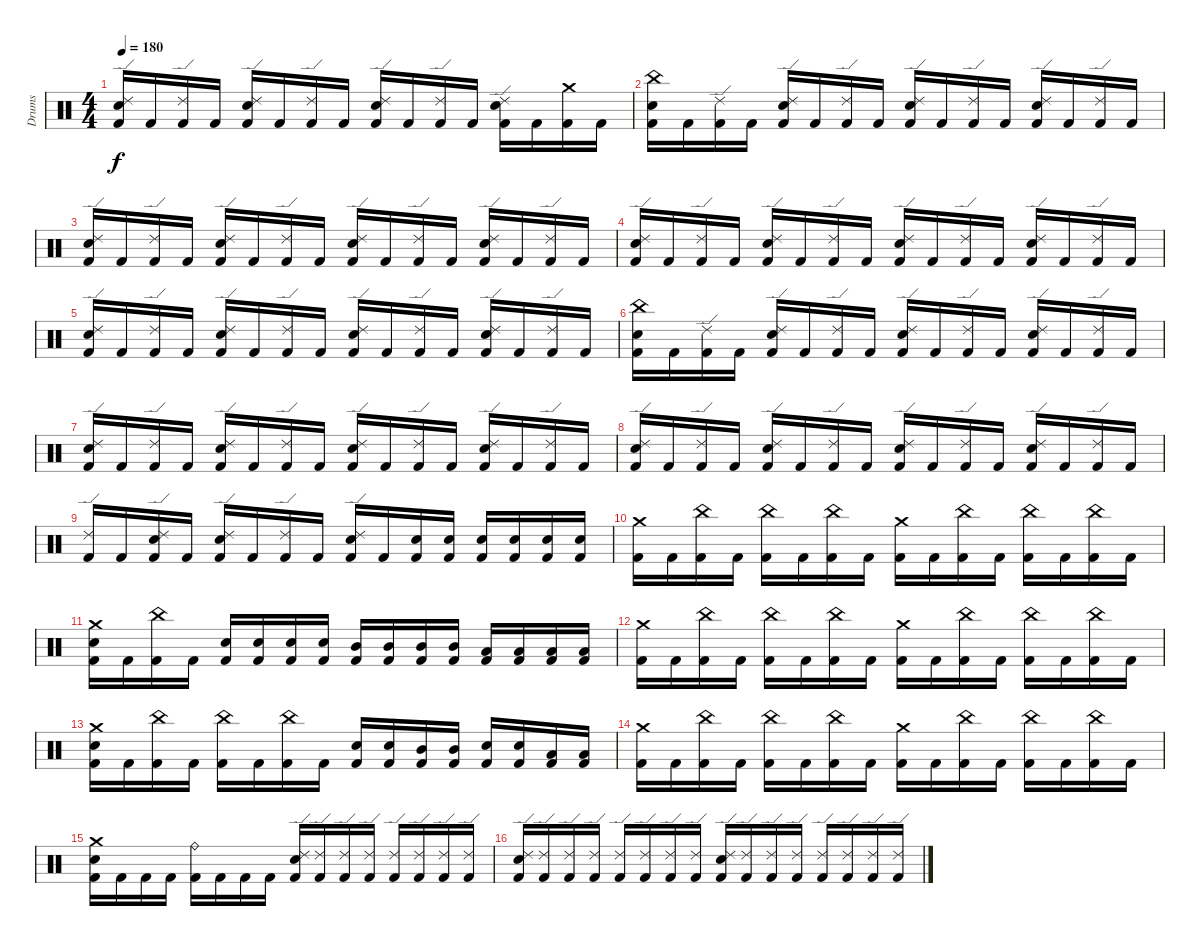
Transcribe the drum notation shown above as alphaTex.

\track ("Drums" "Drums") {instrument percussion}
\staff {score}
\articulation defaults
\ts (4 4)
\tempo 180
\clef neutral
\ks c
("Ride (edge) 2" "Snare (hit) 2" "Kick (hit) 2").16{dy f} "Kick (hit) 2".16 ("Ride (edge) 2" "Kick (hit) 2").16 "Kick (hit) 2".16 ("Ride (edge) 2" "Snare (hit) 2" "Kick (hit) 2").16 "Kick (hit) 2".16 ("Ride (edge) 2" "Kick (hit) 2").16 "Kick (hit) 2".16 ("Ride (edge) 2" "Snare (hit) 2" "Kick (hit) 2").16 "Kick (hit) 2".16 ("Ride (edge) 2" "Kick (hit) 2").16 "Kick (hit) 2".16 ("Ride (edge) 2" "Snare (hit) 2" "Kick (hit) 2").16 "Kick (hit) 2".16 ("Crash medium (hit)" "Kick (hit) 2").16 "Kick (hit) 2".16 |
("China (hit)" "Snare (hit) 2" "Kick (hit) 2").16 "Kick (hit) 2".16 ("Ride (edge) 2" "Kick (hit) 2").16 "Kick (hit) 2".16 ("Ride (edge) 2" "Snare (hit) 2" "Kick (hit) 2").16 "Kick (hit) 2".16 ("Ride (edge) 2" "Kick (hit) 2").16 "Kick (hit) 2".16 ("Ride (edge) 2" "Snare (hit) 2" "Kick (hit) 2").16 "Kick (hit) 2".16 ("Ride (edge) 2" "Kick (hit) 2").16 "Kick (hit) 2".16 ("Ride (edge) 2" "Snare (hit) 2" "Kick (hit) 2").16 "Kick (hit) 2".16 ("Ride (edge) 2" "Kick (hit) 2").16 "Kick (hit) 2".16 |
("Ride (edge) 2" "Snare (hit) 2" "Kick (hit) 2").16 "Kick (hit) 2".16 ("Ride (edge) 2" "Kick (hit) 2").16 "Kick (hit) 2".16 ("Ride (edge) 2" "Snare (hit) 2" "Kick (hit) 2").16 "Kick (hit) 2".16 ("Ride (edge) 2" "Kick (hit) 2").16 "Kick (hit) 2".16 ("Ride (edge) 2" "Snare (hit) 2" "Kick (hit) 2").16 "Kick (hit) 2".16 ("Ride (edge) 2" "Kick (hit) 2").16 "Kick (hit) 2".16 ("Ride (edge) 2" "Snare (hit) 2" "Kick (hit) 2").16 "Kick (hit) 2".16 ("Ride (edge) 2" "Kick (hit) 2").16 "Kick (hit) 2".16 |
("Ride (edge) 2" "Snare (hit) 2" "Kick (hit) 2").16 "Kick (hit) 2".16 ("Ride (edge) 2" "Kick (hit) 2").16 "Kick (hit) 2".16 ("Ride (edge) 2" "Snare (hit) 2" "Kick (hit) 2").16 "Kick (hit) 2".16 ("Ride (edge) 2" "Kick (hit) 2").16 "Kick (hit) 2".16 ("Ride (edge) 2" "Snare (hit) 2" "Kick (hit) 2").16 "Kick (hit) 2".16 ("Ride (edge) 2" "Kick (hit) 2").16 "Kick (hit) 2".16 ("Ride (edge) 2" "Snare (hit) 2" "Kick (hit) 2").16 "Kick (hit) 2".16 ("Ride (edge) 2" "Kick (hit) 2").16 "Kick (hit) 2".16 |
("Ride (edge) 2" "Snare (hit) 2" "Kick (hit) 2").16 "Kick (hit) 2".16 ("Ride (edge) 2" "Kick (hit) 2").16 "Kick (hit) 2".16 ("Ride (edge) 2" "Snare (hit) 2" "Kick (hit) 2").16 "Kick (hit) 2".16 ("Ride (edge) 2" "Kick (hit) 2").16 "Kick (hit) 2".16 ("Ride (edge) 2" "Snare (hit) 2" "Kick (hit) 2").16 "Kick (hit) 2".16 ("Ride (edge) 2" "Kick (hit) 2").16 "Kick (hit) 2".16 ("Ride (edge) 2" "Snare (hit) 2" "Kick (hit) 2").16 "Kick (hit) 2".16 ("Ride (edge) 2" "Kick (hit) 2").16 "Kick (hit) 2".16 |
("China (hit)" "Snare (hit) 2" "Kick (hit) 2").16 "Kick (hit) 2".16 ("Ride (edge) 2" "Kick (hit) 2").16 "Kick (hit) 2".16 ("Ride (edge) 2" "Snare (hit) 2" "Kick (hit) 2").16 "Kick (hit) 2".16 ("Ride (edge) 2" "Kick (hit) 2").16 "Kick (hit) 2".16 ("Ride (edge) 2" "Snare (hit) 2" "Kick (hit) 2").16 "Kick (hit) 2".16 ("Ride (edge) 2" "Kick (hit) 2").16 "Kick (hit) 2".16 ("Ride (edge) 2" "Snare (hit) 2" "Kick (hit) 2").16 "Kick (hit) 2".16 ("Ride (edge) 2" "Kick (hit) 2").16 "Kick (hit) 2".16 |
("Ride (edge) 2" "Snare (hit) 2" "Kick (hit) 2").16 "Kick (hit) 2".16 ("Ride (edge) 2" "Kick (hit) 2").16 "Kick (hit) 2".16 ("Ride (edge) 2" "Snare (hit) 2" "Kick (hit) 2").16 "Kick (hit) 2".16 ("Ride (edge) 2" "Kick (hit) 2").16 "Kick (hit) 2".16 ("Ride (edge) 2" "Snare (hit) 2" "Kick (hit) 2").16 "Kick (hit) 2".16 ("Ride (edge) 2" "Kick (hit) 2").16 "Kick (hit) 2".16 ("Ride (edge) 2" "Snare (hit) 2" "Kick (hit) 2").16 "Kick (hit) 2".16 ("Ride (edge) 2" "Kick (hit) 2").16 "Kick (hit) 2".16 |
("Ride (edge) 2" "Snare (hit) 2" "Kick (hit) 2").16 "Kick (hit) 2".16 ("Ride (edge) 2" "Kick (hit) 2").16 "Kick (hit) 2".16 ("Ride (edge) 2" "Snare (hit) 2" "Kick (hit) 2").16 "Kick (hit) 2".16 ("Ride (edge) 2" "Kick (hit) 2").16 "Kick (hit) 2".16 ("Ride (edge) 2" "Snare (hit) 2" "Kick (hit) 2").16 "Kick (hit) 2".16 ("Ride (edge) 2" "Kick (hit) 2").16 "Kick (hit) 2".16 ("Ride (edge) 2" "Snare (hit) 2" "Kick (hit) 2").16 "Kick (hit) 2".16 ("Ride (edge) 2" "Kick (hit) 2").16 "Kick (hit) 2".16 |
("Ride (edge) 2" "Kick (hit) 2").16 "Kick (hit) 2".16 ("Ride (edge) 2" "Snare (hit) 2" "Kick (hit) 2").16 "Kick (hit) 2".16 ("Ride (edge) 2" "Snare (hit) 2" "Kick (hit) 2").16 "Kick (hit) 2".16 ("Ride (edge) 2" "Kick (hit) 2").16 "Kick (hit) 2".16 ("Ride (edge) 2" "Snare (hit) 2" "Kick (hit) 2").16 "Kick (hit) 2".16 ("Snare (hit) 2" "Kick (hit) 2").16 ("Snare (hit) 2" "Kick (hit) 2").16 ("Snare (hit) 2" "Kick (hit) 2").16 ("Snare (hit) 2" "Kick (hit) 2").16 ("Snare (hit) 2" "Kick (hit) 2").16 ("Snare (hit) 2" "Kick (hit) 2").16 |
("Crash medium (hit)" "Kick (hit) 2").16 "Kick (hit) 2".16 ("China (hit)" "Kick (hit) 2").16 "Kick (hit) 2".16 ("China (hit)" "Kick (hit) 2").16 "Kick (hit) 2".16 ("China (hit)" "Kick (hit) 2").16 "Kick (hit) 2".16 ("Crash medium (hit)" "Kick (hit) 2").16 "Kick (hit) 2".16 ("China (hit)" "Kick (hit) 2").16 "Kick (hit) 2".16 ("China (hit)" "Kick (hit) 2").16 "Kick (hit) 2".16 ("China (hit)" "Kick (hit) 2").16 "Kick (hit) 2".16 |
("Crash medium (hit)" "Snare (hit) 2" "Kick (hit) 2").16 "Kick (hit) 2".16 ("China (hit)" "Kick (hit) 2").16 "Kick (hit) 2".16 ("Snare (hit) 2" "Kick (hit) 2").16 ("Snare (hit) 2" "Kick (hit) 2").16 ("Snare (hit) 2" "Kick (hit) 2").16 ("Snare (hit) 2" "Kick (hit) 2").16 ("Mid Tom (hit)" "Kick (hit) 2").16 ("Mid Tom (hit)" "Kick (hit) 2").16 ("Mid Tom (hit)" "Kick (hit) 2").16 ("Mid Tom (hit)" "Kick (hit) 2").16 ("Low Tom (hit)" "Kick (hit) 2").16 ("Low Tom (hit)" "Kick (hit) 2").16 ("Low Tom (hit)" "Kick (hit) 2").16 ("Low Tom (hit)" "Kick (hit) 2").16 |
("Crash medium (hit)" "Kick (hit) 2").16 "Kick (hit) 2".16 ("China (hit)" "Kick (hit) 2").16 "Kick (hit) 2".16 ("China (hit)" "Kick (hit) 2").16 "Kick (hit) 2".16 ("China (hit)" "Kick (hit) 2").16 "Kick (hit) 2".16 ("Crash medium (hit)" "Kick (hit) 2").16 "Kick (hit) 2".16 ("China (hit)" "Kick (hit) 2").16 "Kick (hit) 2".16 ("China (hit)" "Kick (hit) 2").16 "Kick (hit) 2".16 ("China (hit)" "Kick (hit) 2").16 "Kick (hit) 2".16 |
("Crash medium (hit)" "Snare (hit) 2" "Kick (hit) 2").16 "Kick (hit) 2".16 ("China (hit)" "Kick (hit) 2").16 "Kick (hit) 2".16 ("China (hit)" "Kick (hit) 2").16 "Kick (hit) 2".16 ("China (hit)" "Kick (hit) 2").16 "Kick (hit) 2".16 ("Snare (hit) 2" "Kick (hit) 2").16 ("Snare (hit) 2" "Kick (hit) 2").16 ("Mid Tom (hit)" "Kick (hit) 2").16 ("Mid Tom (hit)" "Kick (hit) 2").16 ("Snare (hit) 2" "Kick (hit) 2").16 ("Snare (hit) 2" "Kick (hit) 2").16 ("Low Tom (hit)" "Kick (hit) 2").16 ("Low Tom (hit)" "Kick (hit) 2").16 |
("Crash medium (hit)" "Kick (hit) 2").16 "Kick (hit) 2".16 ("China (hit)" "Kick (hit) 2").16 "Kick (hit) 2".16 ("China (hit)" "Kick (hit) 2").16 "Kick (hit) 2".16 ("China (hit)" "Kick (hit) 2").16 "Kick (hit) 2".16 ("Crash medium (hit)" "Kick (hit) 2").16 "Kick (hit) 2".16 ("China (hit)" "Kick (hit) 2").16 "Kick (hit) 2".16 ("China (hit)" "Kick (hit) 2").16 "Kick (hit) 2".16 ("China (hit)" "Kick (hit) 2").16 "Kick (hit) 2".16 |
("Crash medium (hit)" "Snare (hit) 2" "Kick (hit) 2").16 "Kick (hit) 2".16 "Kick (hit) 2".16 "Kick (hit) 2".16 ("Ride (bell)" "Kick (hit) 2").16 "Kick (hit) 2".16 "Kick (hit) 2".16 "Kick (hit) 2".16 ("Ride (edge) 2" "Snare (hit) 2" "Kick (hit) 2").16 ("Ride (edge) 2" "Kick (hit) 2").16 ("Ride (edge) 2" "Kick (hit) 2").16 ("Ride (edge) 2" "Kick (hit) 2").16 ("Ride (edge) 2" "Kick (hit) 2").16 ("Ride (edge) 2" "Kick (hit) 2").16 ("Ride (edge) 2" "Kick (hit) 2").16 ("Ride (edge) 2" "Kick (hit) 2").16 |
("Ride (edge) 2" "Snare (hit) 2" "Kick (hit) 2").16 ("Ride (edge) 2" "Kick (hit) 2").16 ("Ride (edge) 2" "Kick (hit) 2").16 ("Ride (edge) 2" "Kick (hit) 2").16 ("Ride (edge) 2" "Kick (hit) 2").16 ("Ride (edge) 2" "Kick (hit) 2").16 ("Ride (edge) 2" "Kick (hit) 2").16 ("Ride (edge) 2" "Kick (hit) 2").16 ("Ride (edge) 2" "Snare (hit) 2" "Kick (hit) 2").16 ("Ride (edge) 2" "Kick (hit) 2").16 ("Ride (edge) 2" "Kick (hit) 2").16 ("Ride (edge) 2" "Kick (hit) 2").16 ("Ride (edge) 2" "Kick (hit) 2").16 ("Ride (edge) 2" "Kick (hit) 2").16 ("Ride (edge) 2" "Kick (hit) 2").16 ("Ride (edge) 2" "Kick (hit) 2").16
